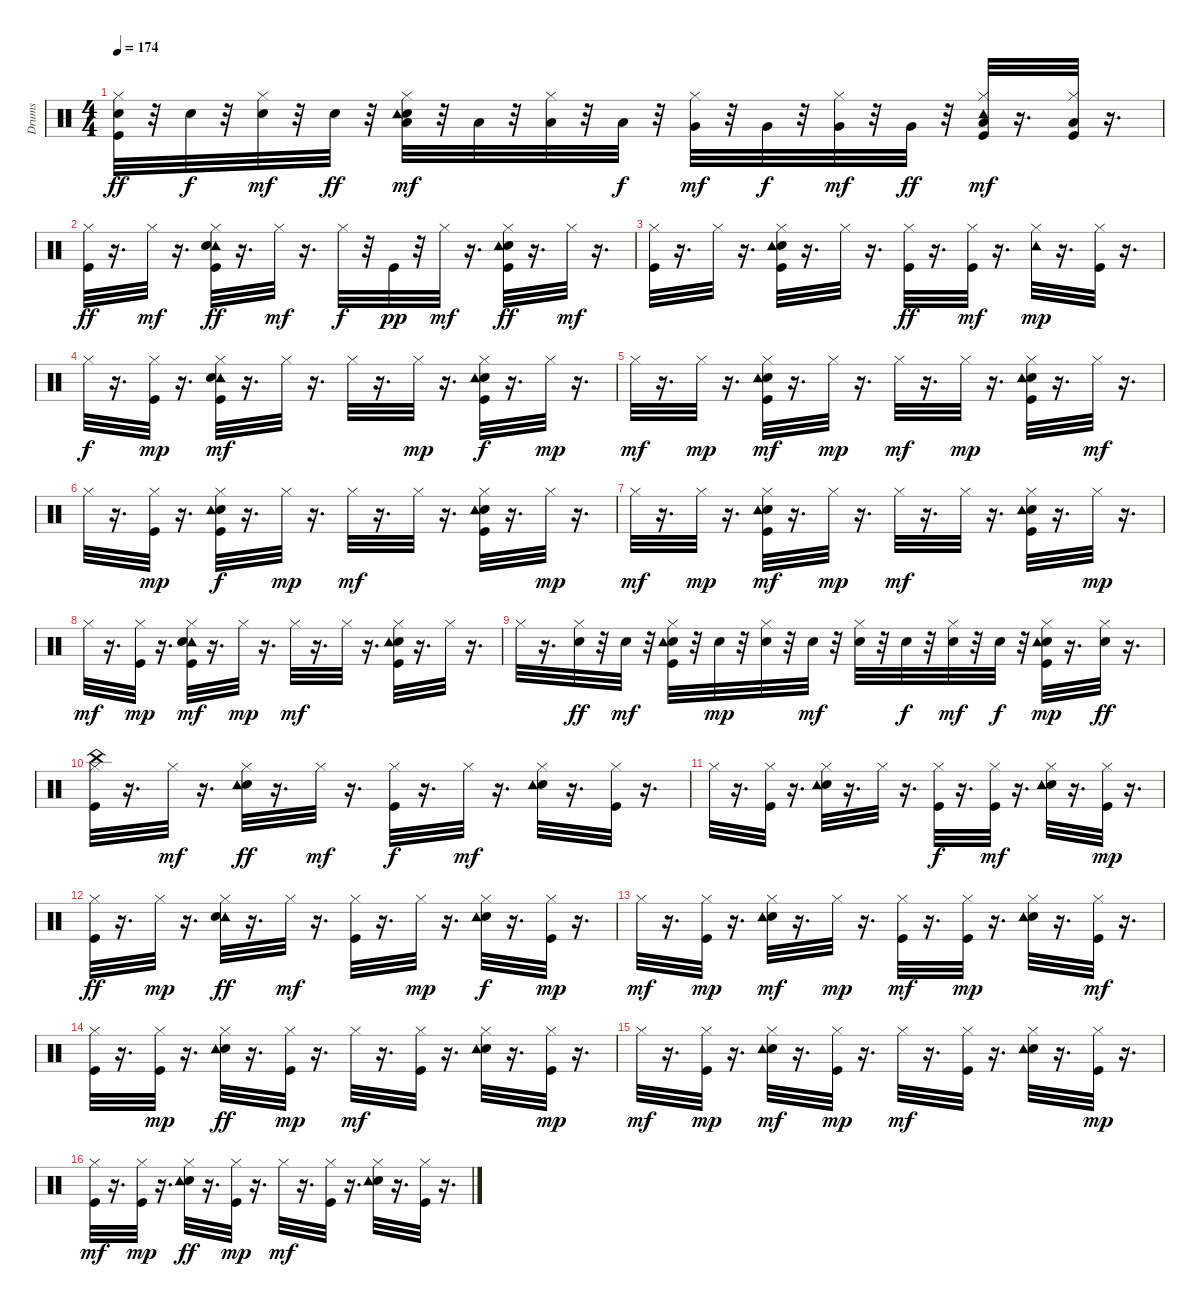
\track ("Drums" "Drums") {instrument percussion}
\staff {score}
\articulation defaults
\ts (4 4)
\tempo 174
\clef neutral
\ks c
("Kick (hit)" "Hi-Hat (closed)" "Electric Snare (hit)").32{dy ff} r.32 "Electric Snare (hit)".32{dy f} r.32 ("Hi-Hat (closed)" "Electric Snare (hit)").32{dy mf} r.32 "Electric Snare (hit)".32{dy ff} r.32 ("Low Tom (hit)" "Hi-Hat (closed)" "Electric Snare (hit)" "Tambourine (hit)").32{dy mf} r.32 "Low Tom (hit)".32 r.32 ("Low Tom (hit)" "Hi-Hat (closed)").32 r.32 "Low Tom (hit)".32{dy f} r.32 ("Very Low Tom (hit)" "Hi-Hat (closed)").32{dy mf} r.32 "Very Low Tom (hit)".32{dy f} r.32 ("Very Low Tom (hit)" "Hi-Hat (closed)").32{dy mf} r.32 "Very Low Tom (hit)".32{dy ff} r.32 ("Low Floor Tom (hit)" "Kick (hit)" "Hi-Hat (closed)" "Tambourine (hit)").32{dy mf} r.16{d} ("Low Floor Tom (hit)" "Kick (hit)" "Hi-Hat (closed)").32 r.16{d} |
("Kick (hit)" "Hi-Hat (closed)").32{dy ff} r.16{d} "Hi-Hat (closed)".32{dy mf} r.16{d} ("Tambourine (hit)" "Kick (hit)" "Hi-Hat (closed)" "Electric Snare (hit)").32{dy ff} r.16{d} "Hi-Hat (closed)".32{dy mf} r.16{d} "Hi-Hat (closed)".32{dy f} r.32 "Kick (hit)".32{dy pp} r.32 "Hi-Hat (closed)".32{dy mf} r.16{d} ("Kick (hit)" "Hi-Hat (closed)" "Electric Snare (hit)" "Tambourine (hit)").32{dy ff} r.16{d} "Hi-Hat (closed)".32{dy mf} r.16{d} |
("Kick (hit)" "Hi-Hat (closed)").32 r.16{d} "Hi-Hat (closed)".32 r.16{d} ("Kick (hit)" "Hi-Hat (closed)" "Electric Snare (hit)" "Tambourine (hit)").32 r.16{d} "Hi-Hat (closed)".32 r.16{d} ("Kick (hit)" "Hi-Hat (closed)").32{dy ff} r.16{d} ("Kick (hit)" "Hi-Hat (closed)").32{dy mf} r.16{d} ("Hi-Hat (closed)" "Tambourine (hit)").32{dy mp} r.16{d} ("Kick (hit)" "Hi-Hat (closed)").32 r.16{d} |
"Hi-Hat (closed)".32{dy f} r.16{d} ("Kick (hit)" "Hi-Hat (closed)").32{dy mp} r.16{d} ("Tambourine (hit)" "Kick (hit)" "Hi-Hat (closed)" "Electric Snare (hit)").32{dy mf} r.16{d} "Hi-Hat (closed)".32 r.16{d} "Hi-Hat (closed)".32 r.16{d} "Hi-Hat (closed)".32{dy mp} r.16{d} ("Kick (hit)" "Hi-Hat (closed)" "Electric Snare (hit)" "Tambourine (hit)").32{dy f} r.16{d} "Hi-Hat (closed)".32{dy mp} r.16{d} |
"Hi-Hat (closed)".32{dy mf} r.16{d} "Hi-Hat (closed)".32{dy mp} r.16{d} ("Kick (hit)" "Hi-Hat (closed)" "Electric Snare (hit)" "Tambourine (hit)").32{dy mf} r.16{d} "Hi-Hat (closed)".32{dy mp} r.16{d} "Hi-Hat (closed)".32{dy mf} r.16{d} "Hi-Hat (closed)".32{dy mp} r.16{d} ("Kick (hit)" "Hi-Hat (closed)" "Electric Snare (hit)" "Tambourine (hit)").32 r.16{d} "Hi-Hat (closed)".32{dy mf} r.16{d} |
"Hi-Hat (closed)".32 r.16{d} ("Kick (hit)" "Hi-Hat (closed)").32{dy mp} r.16{d} ("Kick (hit)" "Hi-Hat (closed)" "Electric Snare (hit)" "Tambourine (hit)").32{dy f} r.16{d} "Hi-Hat (closed)".32{dy mp} r.16{d} "Hi-Hat (closed)".32{dy mf} r.16{d} "Hi-Hat (closed)".32 r.16{d} ("Kick (hit)" "Hi-Hat (closed)" "Electric Snare (hit)" "Tambourine (hit)").32 r.16{d} "Hi-Hat (closed)".32{dy mp} r.16{d} |
"Hi-Hat (closed)".32{dy mf} r.16{d} "Hi-Hat (closed)".32{dy mp} r.16{d} ("Kick (hit)" "Hi-Hat (closed)" "Electric Snare (hit)" "Tambourine (hit)").32{dy mf} r.16{d} "Hi-Hat (closed)".32{dy mp} r.16{d} "Hi-Hat (closed)".32{dy mf} r.16{d} "Hi-Hat (closed)".32 r.16{d} ("Kick (hit)" "Hi-Hat (closed)" "Electric Snare (hit)" "Tambourine (hit)").32 r.16{d} "Hi-Hat (closed)".32{dy mp} r.16{d} |
"Hi-Hat (closed)".32{dy mf} r.16{d} ("Kick (hit)" "Hi-Hat (closed)").32{dy mp} r.16{d} ("Tambourine (hit)" "Kick (hit)" "Hi-Hat (closed)" "Electric Snare (hit)").32{dy mf} r.16{d} "Hi-Hat (closed)".32{dy mp} r.16{d} "Hi-Hat (closed)".32{dy mf} r.16{d} "Hi-Hat (closed)".32 r.16{d} ("Kick (hit)" "Hi-Hat (closed)" "Electric Snare (hit)" "Tambourine (hit)").32 r.16{d} "Hi-Hat (closed)".32 r.16{d} |
"Hi-Hat (closed)".32 r.16{d} ("Hi-Hat (closed)" "Electric Snare (hit)").32{dy ff} r.32 "Electric Snare (hit)".32{dy mf} r.32 ("Kick (hit)" "Hi-Hat (closed)" "Electric Snare (hit)" "Tambourine (hit)").32 r.32 "Electric Snare (hit)".32{dy mp} r.32 ("Hi-Hat (closed)" "Electric Snare (hit)").32 r.32 "Electric Snare (hit)".32{dy mf} r.32 ("Hi-Hat (closed)" "Electric Snare (hit)").32 r.32 "Electric Snare (hit)".32{dy f} r.32 ("Hi-Hat (closed)" "Electric Snare (hit)").32{dy mf} r.32 "Electric Snare (hit)".32{dy f} r.32 ("Kick (hit)" "Hi-Hat (closed)" "Electric Snare (hit)" "Tambourine (hit)").32{dy mp} r.16{d} ("Hi-Hat (closed)" "Electric Snare (hit)").32{dy ff} r.16{d} |
("Kick (hit)" "Hi-Hat (closed)" "China (hit)").32 r.16{d} "Hi-Hat (closed)".32{dy mf} r.16{d} ("Hi-Hat (closed)" "Electric Snare (hit)" "Tambourine (hit)").32{dy ff} r.16{d} "Hi-Hat (closed)".32{dy mf} r.16{d} ("Kick (hit)" "Hi-Hat (closed)").32{dy f} r.16{d} "Hi-Hat (closed)".32{dy mf} r.16{d} ("Hi-Hat (closed)" "Electric Snare (hit)" "Tambourine (hit)").32 r.16{d} ("Kick (hit)" "Hi-Hat (closed)").32 r.16{d} |
"Hi-Hat (closed)".32 r.16{d} ("Kick (hit)" "Hi-Hat (closed)").32 r.16{d} ("Hi-Hat (closed)" "Electric Snare (hit)" "Tambourine (hit)").32 r.16{d} "Hi-Hat (closed)".32 r.16{d} ("Kick (hit)" "Hi-Hat (closed)").32{dy f} r.16{d} ("Kick (hit)" "Hi-Hat (closed)").32{dy mf} r.16{d} ("Hi-Hat (closed)" "Electric Snare (hit)" "Tambourine (hit)").32 r.16{d} ("Kick (hit)" "Hi-Hat (closed)").32{dy mp} r.16{d} |
("Kick (hit)" "Hi-Hat (closed)").32{dy ff} r.16{d} "Hi-Hat (closed)".32{dy mp} r.16{d} ("Tambourine (hit)" "Hi-Hat (closed)" "Electric Snare (hit)").32{dy ff} r.16{d} "Hi-Hat (closed)".32{dy mf} r.16{d} ("Kick (hit)" "Hi-Hat (closed)").32 r.16{d} "Hi-Hat (closed)".32{dy mp} r.16{d} ("Hi-Hat (closed)" "Electric Snare (hit)" "Tambourine (hit)").32{dy f} r.16{d} ("Kick (hit)" "Hi-Hat (closed)").32{dy mp} r.16{d} |
"Hi-Hat (closed)".32{dy mf} r.16{d} ("Kick (hit)" "Hi-Hat (closed)").32{dy mp} r.16{d} ("Hi-Hat (closed)" "Electric Snare (hit)" "Tambourine (hit)").32{dy mf} r.16{d} "Hi-Hat (closed)".32{dy mp} r.16{d} ("Kick (hit)" "Hi-Hat (closed)").32{dy mf} r.16{d} ("Kick (hit)" "Hi-Hat (closed)").32{dy mp} r.16{d} ("Hi-Hat (closed)" "Electric Snare (hit)" "Tambourine (hit)").32 r.16{d} ("Kick (hit)" "Hi-Hat (closed)").32{dy mf} r.16{d} |
("Kick (hit)" "Hi-Hat (closed)").32 r.16{d} ("Kick (hit)" "Hi-Hat (closed)").32{dy mp} r.16{d} ("Hi-Hat (closed)" "Electric Snare (hit)" "Tambourine (hit)").32{dy ff} r.16{d} ("Kick (hit)" "Hi-Hat (closed)").32{dy mp} r.16{d} "Hi-Hat (closed)".32{dy mf} r.16{d} ("Kick (hit)" "Hi-Hat (closed)").32 r.16{d} ("Hi-Hat (closed)" "Electric Snare (hit)" "Tambourine (hit)").32 r.16{d} ("Kick (hit)" "Hi-Hat (closed)").32{dy mp} r.16{d} |
"Hi-Hat (closed)".32{dy mf} r.16{d} ("Kick (hit)" "Hi-Hat (closed)").32{dy mp} r.16{d} ("Hi-Hat (closed)" "Electric Snare (hit)" "Tambourine (hit)").32{dy mf} r.16{d} ("Kick (hit)" "Hi-Hat (closed)").32{dy mp} r.16{d} "Hi-Hat (closed)".32{dy mf} r.16{d} ("Kick (hit)" "Hi-Hat (closed)").32 r.16{d} ("Hi-Hat (closed)" "Electric Snare (hit)" "Tambourine (hit)").32 r.16{d} ("Kick (hit)" "Hi-Hat (closed)").32{dy mp} r.16{d} |
("Kick (hit)" "Hi-Hat (closed)").32{dy mf} r.16{d} ("Kick (hit)" "Hi-Hat (closed)").32{dy mp} r.16{d} ("Hi-Hat (closed)" "Electric Snare (hit)" "Tambourine (hit)").32{dy ff} r.16{d} ("Kick (hit)" "Hi-Hat (closed)").32{dy mp} r.16{d} "Hi-Hat (closed)".32{dy mf} r.16{d} ("Kick (hit)" "Hi-Hat (closed)").32 r.16{d} ("Hi-Hat (closed)" "Electric Snare (hit)" "Tambourine (hit)").32 r.16{d} ("Kick (hit)" "Hi-Hat (closed)").32 r.16{d}
